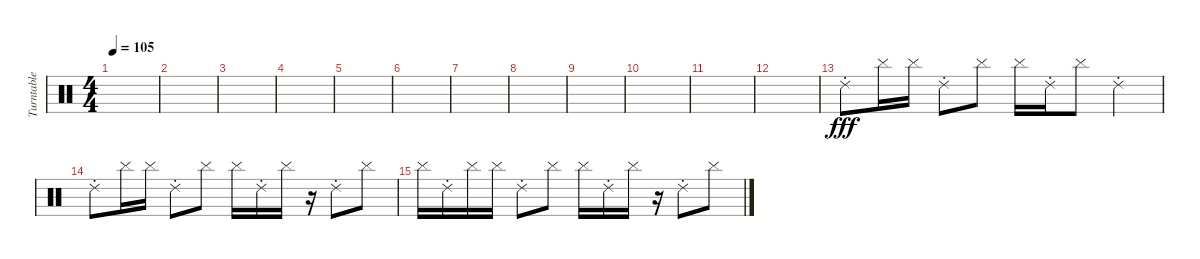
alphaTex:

\track ("Turntable" "Turntable") {instrument percussion}
\staff {score}
\articulation defaults
\ts (4 4)
\tempo 105
\clef neutral
\ks c
|
|
|
|
|
|
|
|
|
|
|
|
"Ride (choke) 2".8{dy fff volume 12 balance 7} "Cymbal (hit)".16 "Cymbal (hit)".16 "Ride (choke) 2".8 "Cymbal (hit)".8 "Cymbal (hit)".16 "Ride (choke) 2".16 "Cymbal (hit)".8 "Ride (choke) 2".4 |
"Ride (choke) 2".8 "Cymbal (hit)".16 "Cymbal (hit)".16 "Ride (choke) 2".8 "Cymbal (hit)".8 "Cymbal (hit)".16 "Ride (choke) 2".16 "Cymbal (hit)".16 r.16 "Ride (choke) 2".8 "Cymbal (hit)".8 |
"Cymbal (hit)".16 "Ride (choke) 2".16 "Cymbal (hit)".16 "Cymbal (hit)".16 "Ride (choke) 2".8 "Cymbal (hit)".8 "Cymbal (hit)".16 "Ride (choke) 2".16 "Cymbal (hit)".16 r.16 "Ride (choke) 2".8 "Cymbal (hit)".8
